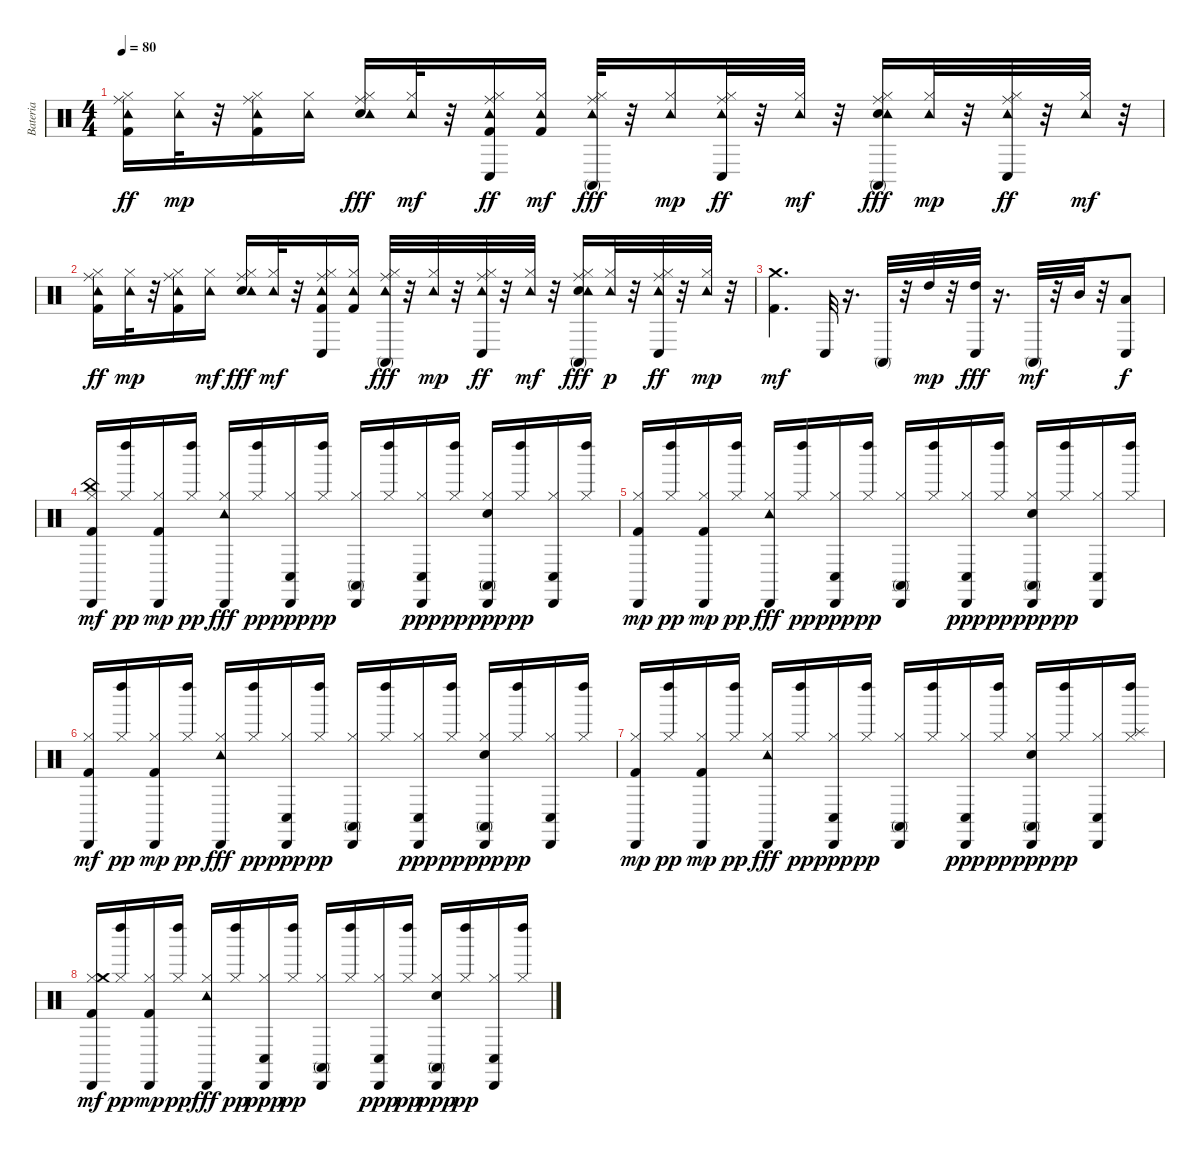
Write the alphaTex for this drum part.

\track ("Bateria" "Bateria") {instrument percussion}
\staff {score}
\articulation defaults
\ts (4 4)
\tempo 80
\clef neutral
\ks c
("Hi-Hat (closed)" "Ride (middle)" "Tambourine (hit)" "Kick (hit) 2").16{dy ff} ("Hi-Hat (closed)" "Tambourine (hit)").32{dy mp} r.32 ("Hi-Hat (closed)" "Ride (middle)" "Tambourine (hit)" "Kick (hit) 2").16 ("Hi-Hat (closed)" "Tambourine (hit)").16 ("Electric Snare (hit)" "Hi-Hat (closed)" "Ride (middle)" "Tambourine (hit)").16{dy fff} ("Hi-Hat (closed)" "Tambourine (hit)").32{dy mf} r.32 ("Hi-Hat (closed)" "Conga low (hit)" "Ride (middle)" "Tambourine (hit)" "Kick (hit) 2").16{dy ff} ("Hi-Hat (closed)" "Tambourine (hit)" "Kick (hit) 2").16{dy mf} ("Hi-Hat (closed)" "Conga high (mute)" "Ride (middle)" "Tambourine (hit)").32{dy fff} r.32 ("Hi-Hat (closed)" "Tambourine (hit)").16{dy mp} ("Hi-Hat (closed)" "Conga low (hit)" "Ride (middle)" "Tambourine (hit)").32{dy ff} r.32 ("Hi-Hat (closed)" "Tambourine (hit)").32{dy mf} r.32 ("Electric Snare (hit)" "Hi-Hat (closed)" "Conga high (mute)" "Ride (middle)" "Tambourine (hit)").16{dy fff} ("Hi-Hat (closed)" "Tambourine (hit)").32{dy mp} r.32 ("Hi-Hat (closed)" "Conga low (hit)" "Ride (middle)" "Tambourine (hit)").32{dy ff} r.32 ("Hi-Hat (closed)" "Tambourine (hit)").32{dy mf} r.32 |
("Hi-Hat (closed)" "Ride (middle)" "Tambourine (hit)" "Kick (hit) 2").16{dy ff} ("Hi-Hat (closed)" "Tambourine (hit)").32{dy mp} r.32 ("Hi-Hat (closed)" "Ride (middle)" "Tambourine (hit)" "Kick (hit) 2").16 ("Hi-Hat (closed)" "Tambourine (hit)").16{dy mf} ("Electric Snare (hit)" "Hi-Hat (closed)" "Ride (middle)" "Tambourine (hit)").16{dy fff} ("Hi-Hat (closed)" "Tambourine (hit)").32{dy mf} r.32 ("Hi-Hat (closed)" "Conga low (hit)" "Ride (middle)" "Tambourine (hit)" "Kick (hit) 2").16 ("Hi-Hat (closed)" "Tambourine (hit)" "Kick (hit) 2").16 ("Hi-Hat (closed)" "Conga high (mute)" "Ride (middle)" "Tambourine (hit)").32{dy fff} r.32 ("Hi-Hat (closed)" "Tambourine (hit)").32{dy mp} r.32 ("Hi-Hat (closed)" "Conga low (hit)" "Ride (middle)" "Tambourine (hit)").32{dy ff} r.32 ("Hi-Hat (closed)" "Tambourine (hit)").32{dy mf} r.32 ("Electric Snare (hit)" "Hi-Hat (closed)" "Conga high (mute)" "Ride (middle)" "Tambourine (hit)").16{dy fff} ("Hi-Hat (closed)" "Tambourine (hit)").32{dy p} r.32 ("Hi-Hat (closed)" "Conga low (hit)" "Ride (middle)" "Tambourine (hit)").32{dy ff} r.32 ("Hi-Hat (closed)" "Tambourine (hit)").32{dy mp} r.32 |
("Crash medium (hit)" "Kick (hit) 2").4{d dy mf} "Conga low (hit)".32 r.16{d} "Conga high (mute)".32 r.32 "High Tom (hit)".32{dy mp} r.32 ("Conga low (hit)" "High Tom (hit)").32{dy fff} r.16{d} "Conga high (mute)".32{dy mf} r.32 "Mid Tom (hit)".32 r.32 ("Conga low (hit)" "Low Tom (hit)").8{dy f} |
("Hi-Hat (closed)" "China (hit)" "Cabasa (hit)" "Kick (hit) 2").16{dy mf} ("Hi-Hat (closed)" "Left Maraca (hit)").16{dy pp} ("Hi-Hat (closed)" "Cabasa (hit)" "Kick (hit) 2").16{dy mp} ("Hi-Hat (closed)" "Left Maraca (hit)").16{dy pp} ("Hi-Hat (closed)" "Cabasa (hit)" "Tambourine (hit)").16{dy fff} ("Hi-Hat (closed)" "Left Maraca (hit)").16{dy pp} ("Hi-Hat (closed)" "Conga low (hit)" "Cabasa (hit)").16{dy ppp} ("Hi-Hat (closed)" "Left Maraca (hit)").16{dy pp} ("Hi-Hat (closed)" "Conga high (mute)" "Cabasa (hit)").16 ("Hi-Hat (closed)" "Left Maraca (hit)").16 ("Hi-Hat (closed)" "Conga low (hit)" "Cabasa (hit)").16{dy ppp} ("Hi-Hat (closed)" "Left Maraca (hit)").16{dy pp} ("Electric Snare (hit)" "Hi-Hat (closed)" "Conga high (mute)" "Cabasa (hit)").16{dy ppp} ("Hi-Hat (closed)" "Left Maraca (hit)").16{dy pp} ("Hi-Hat (closed)" "Conga low (hit)" "Cabasa (hit)").16 ("Hi-Hat (closed)" "Left Maraca (hit)").16 |
("Hi-Hat (closed)" "Cabasa (hit)" "Kick (hit) 2").16{dy mp} ("Hi-Hat (closed)" "Left Maraca (hit)").16{dy pp} ("Hi-Hat (closed)" "Cabasa (hit)" "Kick (hit) 2").16{dy mp} ("Hi-Hat (closed)" "Left Maraca (hit)").16{dy pp} ("Hi-Hat (closed)" "Cabasa (hit)" "Tambourine (hit)").16{dy fff} ("Hi-Hat (closed)" "Left Maraca (hit)").16{dy pp} ("Hi-Hat (closed)" "Conga low (hit)" "Cabasa (hit)").16{dy ppp} ("Hi-Hat (closed)" "Left Maraca (hit)").16{dy pp} ("Hi-Hat (closed)" "Conga high (mute)" "Cabasa (hit)").16 ("Hi-Hat (closed)" "Left Maraca (hit)").16 ("Hi-Hat (closed)" "Conga low (hit)" "Cabasa (hit)").16{dy ppp} ("Hi-Hat (closed)" "Left Maraca (hit)").16{dy pp} ("Electric Snare (hit)" "Hi-Hat (closed)" "Conga high (mute)" "Cabasa (hit)").16{dy ppp} ("Hi-Hat (closed)" "Left Maraca (hit)").16{dy pp} ("Hi-Hat (closed)" "Conga low (hit)" "Cabasa (hit)").16 ("Hi-Hat (closed)" "Left Maraca (hit)").16 |
("Hi-Hat (closed)" "Cabasa (hit)" "Kick (hit) 2").16{dy mf} ("Hi-Hat (closed)" "Left Maraca (hit)").16{dy pp} ("Hi-Hat (closed)" "Cabasa (hit)" "Kick (hit) 2").16{dy mp} ("Hi-Hat (closed)" "Left Maraca (hit)").16{dy pp} ("Hi-Hat (closed)" "Cabasa (hit)" "Tambourine (hit)").16{dy fff} ("Hi-Hat (closed)" "Left Maraca (hit)").16{dy pp} ("Hi-Hat (closed)" "Conga low (hit)" "Cabasa (hit)").16{dy ppp} ("Hi-Hat (closed)" "Left Maraca (hit)").16{dy pp} ("Hi-Hat (closed)" "Conga high (mute)" "Cabasa (hit)").16 ("Hi-Hat (closed)" "Left Maraca (hit)").16 ("Hi-Hat (closed)" "Conga low (hit)" "Cabasa (hit)").16{dy ppp} ("Hi-Hat (closed)" "Left Maraca (hit)").16{dy pp} ("Electric Snare (hit)" "Hi-Hat (closed)" "Conga high (mute)" "Cabasa (hit)").16{dy ppp} ("Hi-Hat (closed)" "Left Maraca (hit)").16{dy pp} ("Hi-Hat (closed)" "Conga low (hit)" "Cabasa (hit)").16 ("Hi-Hat (closed)" "Left Maraca (hit)").16 |
("Hi-Hat (closed)" "Cabasa (hit)" "Kick (hit) 2").16{dy mp} ("Hi-Hat (closed)" "Left Maraca (hit)").16{dy pp} ("Hi-Hat (closed)" "Cabasa (hit)" "Kick (hit) 2").16{dy mp} ("Hi-Hat (closed)" "Left Maraca (hit)").16{dy pp} ("Hi-Hat (closed)" "Cabasa (hit)" "Tambourine (hit)").16{dy fff} ("Hi-Hat (closed)" "Left Maraca (hit)").16{dy pp} ("Hi-Hat (closed)" "Conga low (hit)" "Cabasa (hit)").16{dy ppp} ("Hi-Hat (closed)" "Left Maraca (hit)").16{dy pp} ("Hi-Hat (closed)" "Conga high (mute)" "Cabasa (hit)").16 ("Hi-Hat (closed)" "Left Maraca (hit)").16 ("Hi-Hat (closed)" "Conga low (hit)" "Cabasa (hit)").16{dy ppp} ("Hi-Hat (closed)" "Left Maraca (hit)").16{dy pp} ("Electric Snare (hit)" "Hi-Hat (closed)" "Conga high (mute)" "Cabasa (hit)").16{dy ppp} ("Hi-Hat (closed)" "Left Maraca (hit)").16{dy pp} ("Hi-Hat (closed)" "Conga low (hit)" "Cabasa (hit)").16 ("Hi-Hat (closed)" "Splash (hit)" "Left Maraca (hit)").16 |
("Hi-Hat (closed)" "Crash medium (hit)" "Cabasa (hit)" "Kick (hit) 2").16{dy mf} ("Hi-Hat (closed)" "Left Maraca (hit)").16{dy pp} ("Hi-Hat (closed)" "Cabasa (hit)" "Kick (hit) 2").16{dy mp} ("Hi-Hat (closed)" "Left Maraca (hit)").16{dy pp} ("Hi-Hat (closed)" "Cabasa (hit)" "Tambourine (hit)").16{dy fff} ("Hi-Hat (closed)" "Left Maraca (hit)").16{dy pp} ("Hi-Hat (closed)" "Conga low (hit)" "Cabasa (hit)").16{dy ppp} ("Hi-Hat (closed)" "Left Maraca (hit)").16{dy pp} ("Hi-Hat (closed)" "Conga high (mute)" "Cabasa (hit)").16 ("Hi-Hat (closed)" "Left Maraca (hit)").16 ("Hi-Hat (closed)" "Conga low (hit)" "Cabasa (hit)").16{dy ppp} ("Hi-Hat (closed)" "Left Maraca (hit)").16{dy pp} ("Electric Snare (hit)" "Hi-Hat (closed)" "Conga high (mute)" "Cabasa (hit)").16{dy ppp} ("Hi-Hat (closed)" "Left Maraca (hit)").16{dy pp} ("Hi-Hat (closed)" "Conga low (hit)" "Cabasa (hit)").16 ("Hi-Hat (closed)" "Left Maraca (hit)").16
